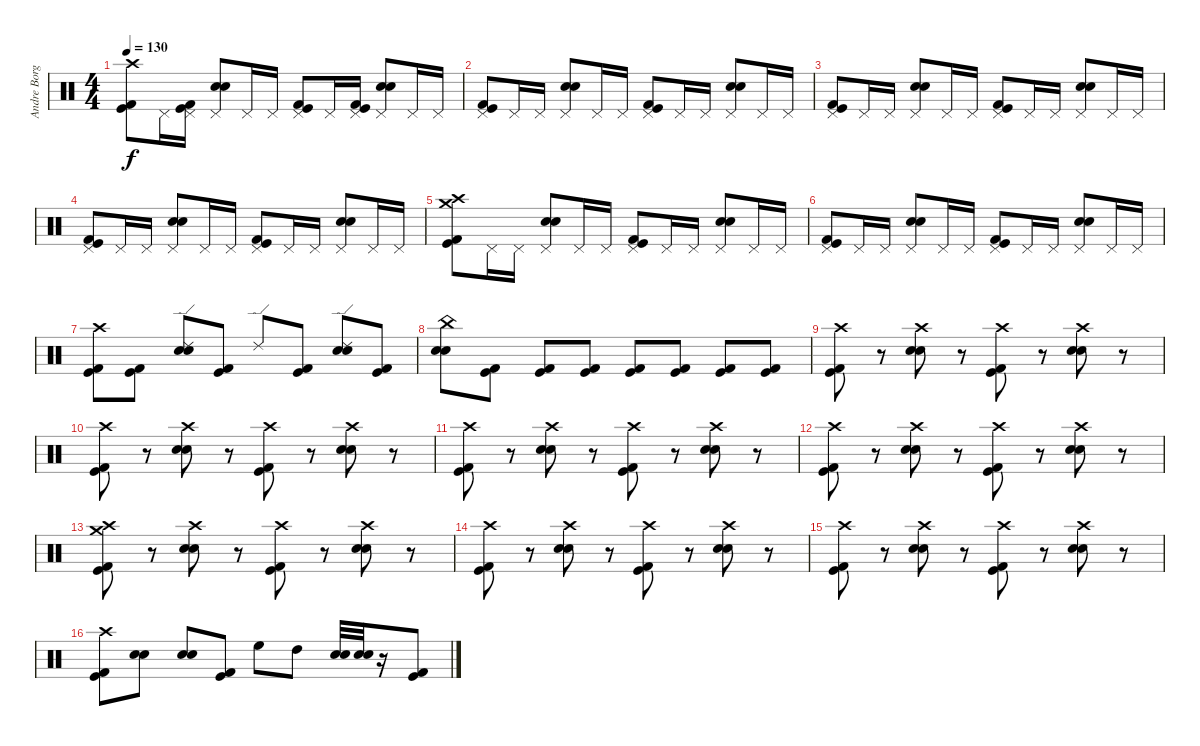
\track ("Andre Borgman" "Andre Borg") {instrument percussion}
\staff {score}
\articulation defaults
\ts (4 4)
\tempo 130
\clef neutral
\ks c
("Crash high (hit)" "Kick (hit)" "Kick (hit) 2").8{dy f} "Pedal Hi-Hat (hit)".16 ("Pedal Hi-Hat (hit)" "Kick (hit)" "Kick (hit) 2").16 ("Pedal Hi-Hat (hit)" "Electric Snare (hit)" "Snare (hit) 2").8 "Pedal Hi-Hat (hit)".16 "Pedal Hi-Hat (hit)".16 ("Pedal Hi-Hat (hit)" "Kick (hit)" "Kick (hit) 2").8 "Pedal Hi-Hat (hit)".16 ("Pedal Hi-Hat (hit)" "Kick (hit)" "Kick (hit) 2").16 ("Pedal Hi-Hat (hit)" "Electric Snare (hit)" "Snare (hit) 2").8 "Pedal Hi-Hat (hit)".16 "Pedal Hi-Hat (hit)".16 |
("Pedal Hi-Hat (hit)" "Kick (hit)" "Kick (hit) 2").8 "Pedal Hi-Hat (hit)".16 "Pedal Hi-Hat (hit)".16 ("Pedal Hi-Hat (hit)" "Electric Snare (hit)" "Snare (hit) 2").8 "Pedal Hi-Hat (hit)".16 "Pedal Hi-Hat (hit)".16 ("Pedal Hi-Hat (hit)" "Kick (hit)" "Kick (hit) 2").8 "Pedal Hi-Hat (hit)".16 "Pedal Hi-Hat (hit)".16 ("Pedal Hi-Hat (hit)" "Electric Snare (hit)" "Snare (hit) 2").8 "Pedal Hi-Hat (hit)".16 "Pedal Hi-Hat (hit)".16 |
("Pedal Hi-Hat (hit)" "Kick (hit)" "Kick (hit) 2").8 "Pedal Hi-Hat (hit)".16 "Pedal Hi-Hat (hit)".16 ("Pedal Hi-Hat (hit)" "Electric Snare (hit)" "Snare (hit) 2").8 "Pedal Hi-Hat (hit)".16 "Pedal Hi-Hat (hit)".16 ("Pedal Hi-Hat (hit)" "Kick (hit)" "Kick (hit) 2").8 "Pedal Hi-Hat (hit)".16 "Pedal Hi-Hat (hit)".16 ("Pedal Hi-Hat (hit)" "Electric Snare (hit)" "Snare (hit) 2").8 "Pedal Hi-Hat (hit)".16 "Pedal Hi-Hat (hit)".16 |
("Pedal Hi-Hat (hit)" "Kick (hit)" "Kick (hit) 2").8 "Pedal Hi-Hat (hit)".16 "Pedal Hi-Hat (hit)".16 ("Pedal Hi-Hat (hit)" "Electric Snare (hit)" "Snare (hit) 2").8 "Pedal Hi-Hat (hit)".16 "Pedal Hi-Hat (hit)".16 ("Pedal Hi-Hat (hit)" "Kick (hit)" "Kick (hit) 2").8 "Pedal Hi-Hat (hit)".16 "Pedal Hi-Hat (hit)".16 ("Pedal Hi-Hat (hit)" "Electric Snare (hit)" "Snare (hit) 2").8 "Pedal Hi-Hat (hit)".16 "Pedal Hi-Hat (hit)".16 |
("Crash medium (hit)" "Crash high (hit)" "Kick (hit)" "Kick (hit) 2").8 "Pedal Hi-Hat (hit)".16 "Pedal Hi-Hat (hit)".16 ("Pedal Hi-Hat (hit)" "Electric Snare (hit)" "Snare (hit) 2").8 "Pedal Hi-Hat (hit)".16 "Pedal Hi-Hat (hit)".16 ("Pedal Hi-Hat (hit)" "Kick (hit)" "Kick (hit) 2").8 "Pedal Hi-Hat (hit)".16 "Pedal Hi-Hat (hit)".16 ("Pedal Hi-Hat (hit)" "Electric Snare (hit)" "Snare (hit) 2").8 "Pedal Hi-Hat (hit)".16 "Pedal Hi-Hat (hit)".16 |
("Pedal Hi-Hat (hit)" "Kick (hit)" "Kick (hit) 2").8 "Pedal Hi-Hat (hit)".16 "Pedal Hi-Hat (hit)".16 ("Pedal Hi-Hat (hit)" "Electric Snare (hit)" "Snare (hit) 2").8 "Pedal Hi-Hat (hit)".16 "Pedal Hi-Hat (hit)".16 ("Pedal Hi-Hat (hit)" "Kick (hit)" "Kick (hit) 2").8 "Pedal Hi-Hat (hit)".16 "Pedal Hi-Hat (hit)".16 ("Pedal Hi-Hat (hit)" "Electric Snare (hit)" "Snare (hit) 2").8 "Pedal Hi-Hat (hit)".16 "Pedal Hi-Hat (hit)".16 |
("Crash high (hit)" "Kick (hit)" "Kick (hit) 2").8 ("Kick (hit)" "Kick (hit) 2").8 ("Ride (edge) 2" "Electric Snare (hit)" "Snare (hit) 2").8 ("Kick (hit)" "Kick (hit) 2").8 "Ride (edge) 2".8 ("Kick (hit)" "Kick (hit) 2").8 ("Ride (edge) 2" "Electric Snare (hit)" "Snare (hit) 2").8 ("Kick (hit)" "Kick (hit) 2").8 |
("China (hit)" "Electric Snare (hit)" "Snare (hit) 2").8 ("Kick (hit)" "Kick (hit) 2").8 ("Kick (hit)" "Kick (hit) 2").8 ("Kick (hit)" "Kick (hit) 2").8 ("Kick (hit)" "Kick (hit) 2").8 ("Kick (hit)" "Kick (hit) 2").8 ("Kick (hit)" "Kick (hit) 2").8 ("Kick (hit)" "Kick (hit) 2").8 |
("Crash high (hit)" "Kick (hit)" "Kick (hit) 2").8 r.8 ("Crash high (hit)" "Electric Snare (hit)" "Snare (hit) 2").8 r.8 ("Crash high (hit)" "Kick (hit)" "Kick (hit) 2").8 r.8 ("Crash high (hit)" "Electric Snare (hit)" "Snare (hit) 2").8 r.8 |
("Crash high (hit)" "Kick (hit)" "Kick (hit) 2").8 r.8 ("Crash high (hit)" "Electric Snare (hit)" "Snare (hit) 2").8 r.8 ("Crash high (hit)" "Kick (hit)" "Kick (hit) 2").8 r.8 ("Crash high (hit)" "Electric Snare (hit)" "Snare (hit) 2").8 r.8 |
("Crash high (hit)" "Kick (hit)" "Kick (hit) 2").8 r.8 ("Crash high (hit)" "Electric Snare (hit)" "Snare (hit) 2").8 r.8 ("Crash high (hit)" "Kick (hit)" "Kick (hit) 2").8 r.8 ("Crash high (hit)" "Electric Snare (hit)" "Snare (hit) 2").8 r.8 |
("Crash high (hit)" "Kick (hit)" "Kick (hit) 2").8 r.8 ("Crash high (hit)" "Electric Snare (hit)" "Snare (hit) 2").8 r.8 ("Crash high (hit)" "Kick (hit)" "Kick (hit) 2").8 r.8 ("Crash high (hit)" "Electric Snare (hit)" "Snare (hit) 2").8 r.8 |
("Crash medium (hit)" "Crash high (hit)" "Kick (hit)" "Kick (hit) 2").8 r.8 ("Crash high (hit)" "Electric Snare (hit)" "Snare (hit) 2").8 r.8 ("Crash high (hit)" "Kick (hit)" "Kick (hit) 2").8 r.8 ("Crash high (hit)" "Electric Snare (hit)" "Snare (hit) 2").8 r.8 |
("Crash high (hit)" "Kick (hit)" "Kick (hit) 2").8 r.8 ("Crash high (hit)" "Electric Snare (hit)" "Snare (hit) 2").8 r.8 ("Crash high (hit)" "Kick (hit)" "Kick (hit) 2").8 r.8 ("Crash high (hit)" "Electric Snare (hit)" "Snare (hit) 2").8 r.8 |
("Crash high (hit)" "Kick (hit)" "Kick (hit) 2").8 r.8 ("Crash high (hit)" "Electric Snare (hit)" "Snare (hit) 2").8 r.8 ("Crash high (hit)" "Kick (hit)" "Kick (hit) 2").8 r.8 ("Crash high (hit)" "Electric Snare (hit)" "Snare (hit) 2").8 r.8 |
("Crash high (hit)" "Kick (hit)" "Kick (hit) 2").8 ("Electric Snare (hit)" "Snare (hit) 2").8 ("Electric Snare (hit)" "Snare (hit) 2").8 ("Kick (hit)" "Kick (hit) 2").8 "High Floor Tom (hit)".8 "High Tom (hit)".8 ("Electric Snare (hit)" "Snare (hit) 2").32 ("Electric Snare (hit)" "Snare (hit) 2").32 r.16 ("Kick (hit)" "Kick (hit) 2").8
